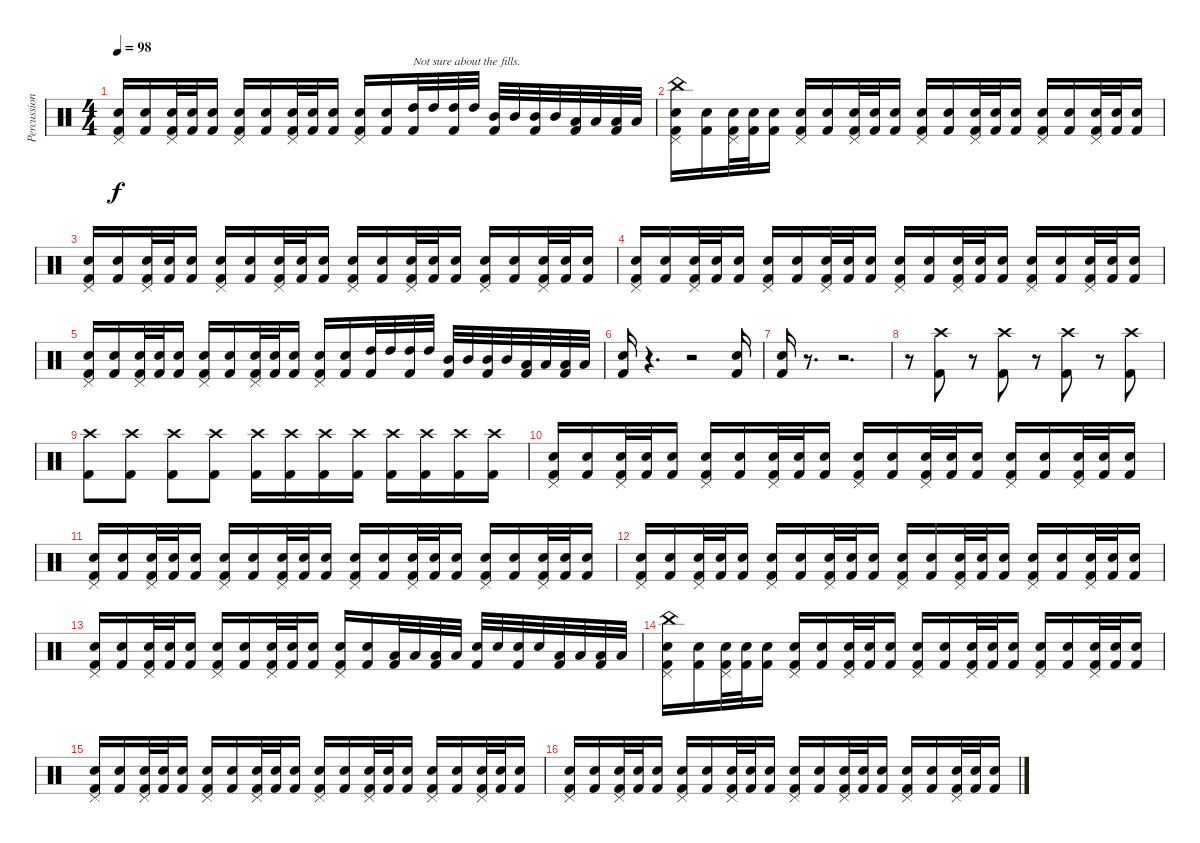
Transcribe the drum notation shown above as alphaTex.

\track ("Percussion" "Percussion") {instrument percussion}
\staff {score}
\articulation defaults
\ts (4 4)
\tempo 98
\clef neutral
\ks c
("Pedal Hi-Hat (hit)" "Snare (hit) 2" "Kick (hit) 2").16{dy f} ("Snare (hit) 2" "Kick (hit) 2").16 ("Pedal Hi-Hat (hit)" "Snare (hit) 2" "Kick (hit) 2").32 ("Snare (hit) 2" "Kick (hit) 2").32 ("Snare (hit) 2" "Kick (hit) 2").16 ("Pedal Hi-Hat (hit)" "Snare (hit) 2" "Kick (hit) 2").16 ("Snare (hit) 2" "Kick (hit) 2").16 ("Pedal Hi-Hat (hit)" "Snare (hit) 2" "Kick (hit) 2").32 ("Snare (hit) 2" "Kick (hit) 2").32 ("Snare (hit) 2" "Kick (hit) 2").16 ("Pedal Hi-Hat (hit)" "Snare (hit) 2" "Kick (hit) 2").16 ("Snare (hit) 2" "Kick (hit) 2").16 ("High Tom (hit)" "Kick (hit) 2").32{txt "Not sure about the fills."} "High Tom (hit)".32 ("High Tom (hit)" "Kick (hit) 2").32 "High Tom (hit)".32 ("Mid Tom (hit)" "Kick (hit) 2").32 "Mid Tom (hit)".32 ("Mid Tom (hit)" "Kick (hit) 2").32 "Mid Tom (hit)".32 ("Low Tom (hit)" "Kick (hit) 2").32 "Low Tom (hit)".32 ("Low Tom (hit)" "Kick (hit) 2").32 "Low Tom (hit)".32 |
("China (hit)" "Pedal Hi-Hat (hit)" "Snare (hit) 2" "Kick (hit) 2").16 ("Snare (hit) 2" "Kick (hit) 2").16 ("Pedal Hi-Hat (hit)" "Snare (hit) 2" "Kick (hit) 2").32 ("Snare (hit) 2" "Kick (hit) 2").32 ("Snare (hit) 2" "Kick (hit) 2").16 ("Pedal Hi-Hat (hit)" "Snare (hit) 2" "Kick (hit) 2").16 ("Snare (hit) 2" "Kick (hit) 2").16 ("Pedal Hi-Hat (hit)" "Snare (hit) 2" "Kick (hit) 2").32 ("Snare (hit) 2" "Kick (hit) 2").32 ("Snare (hit) 2" "Kick (hit) 2").16 ("Pedal Hi-Hat (hit)" "Snare (hit) 2" "Kick (hit) 2").16 ("Snare (hit) 2" "Kick (hit) 2").16 ("Pedal Hi-Hat (hit)" "Snare (hit) 2" "Kick (hit) 2").32 ("Snare (hit) 2" "Kick (hit) 2").32 ("Snare (hit) 2" "Kick (hit) 2").16 ("Pedal Hi-Hat (hit)" "Snare (hit) 2" "Kick (hit) 2").16 ("Snare (hit) 2" "Kick (hit) 2").16 ("Pedal Hi-Hat (hit)" "Snare (hit) 2" "Kick (hit) 2").32 ("Snare (hit) 2" "Kick (hit) 2").32 ("Snare (hit) 2" "Kick (hit) 2").16 |
("Pedal Hi-Hat (hit)" "Snare (hit) 2" "Kick (hit) 2").16 ("Snare (hit) 2" "Kick (hit) 2").16 ("Pedal Hi-Hat (hit)" "Snare (hit) 2" "Kick (hit) 2").32 ("Snare (hit) 2" "Kick (hit) 2").32 ("Snare (hit) 2" "Kick (hit) 2").16 ("Pedal Hi-Hat (hit)" "Snare (hit) 2" "Kick (hit) 2").16 ("Snare (hit) 2" "Kick (hit) 2").16 ("Pedal Hi-Hat (hit)" "Snare (hit) 2" "Kick (hit) 2").32 ("Snare (hit) 2" "Kick (hit) 2").32 ("Snare (hit) 2" "Kick (hit) 2").16 ("Pedal Hi-Hat (hit)" "Snare (hit) 2" "Kick (hit) 2").16 ("Snare (hit) 2" "Kick (hit) 2").16 ("Pedal Hi-Hat (hit)" "Snare (hit) 2" "Kick (hit) 2").32 ("Snare (hit) 2" "Kick (hit) 2").32 ("Snare (hit) 2" "Kick (hit) 2").16 ("Pedal Hi-Hat (hit)" "Snare (hit) 2" "Kick (hit) 2").16 ("Snare (hit) 2" "Kick (hit) 2").16 ("Pedal Hi-Hat (hit)" "Snare (hit) 2" "Kick (hit) 2").32 ("Snare (hit) 2" "Kick (hit) 2").32 ("Snare (hit) 2" "Kick (hit) 2").16 |
("Pedal Hi-Hat (hit)" "Snare (hit) 2" "Kick (hit) 2").16 ("Snare (hit) 2" "Kick (hit) 2").16 ("Pedal Hi-Hat (hit)" "Snare (hit) 2" "Kick (hit) 2").32 ("Snare (hit) 2" "Kick (hit) 2").32 ("Snare (hit) 2" "Kick (hit) 2").16 ("Pedal Hi-Hat (hit)" "Snare (hit) 2" "Kick (hit) 2").16 ("Snare (hit) 2" "Kick (hit) 2").16 ("Pedal Hi-Hat (hit)" "Snare (hit) 2" "Kick (hit) 2").32 ("Snare (hit) 2" "Kick (hit) 2").32 ("Snare (hit) 2" "Kick (hit) 2").16 ("Pedal Hi-Hat (hit)" "Snare (hit) 2" "Kick (hit) 2").16 ("Snare (hit) 2" "Kick (hit) 2").16 ("Pedal Hi-Hat (hit)" "Snare (hit) 2" "Kick (hit) 2").32 ("Snare (hit) 2" "Kick (hit) 2").32 ("Snare (hit) 2" "Kick (hit) 2").16 ("Pedal Hi-Hat (hit)" "Snare (hit) 2" "Kick (hit) 2").16 ("Snare (hit) 2" "Kick (hit) 2").16 ("Pedal Hi-Hat (hit)" "Snare (hit) 2" "Kick (hit) 2").32 ("Snare (hit) 2" "Kick (hit) 2").32 ("Snare (hit) 2" "Kick (hit) 2").16 |
("Pedal Hi-Hat (hit)" "Snare (hit) 2" "Kick (hit) 2").16 ("Snare (hit) 2" "Kick (hit) 2").16 ("Pedal Hi-Hat (hit)" "Snare (hit) 2" "Kick (hit) 2").32 ("Snare (hit) 2" "Kick (hit) 2").32 ("Snare (hit) 2" "Kick (hit) 2").16 ("Pedal Hi-Hat (hit)" "Snare (hit) 2" "Kick (hit) 2").16 ("Snare (hit) 2" "Kick (hit) 2").16 ("Pedal Hi-Hat (hit)" "Snare (hit) 2" "Kick (hit) 2").32 ("Snare (hit) 2" "Kick (hit) 2").32 ("Snare (hit) 2" "Kick (hit) 2").16 ("Pedal Hi-Hat (hit)" "Snare (hit) 2" "Kick (hit) 2").16 ("Snare (hit) 2" "Kick (hit) 2").16 ("High Tom (hit)" "Kick (hit) 2").32 "High Tom (hit)".32 ("High Tom (hit)" "Kick (hit) 2").32 "High Tom (hit)".32 ("Mid Tom (hit)" "Kick (hit) 2").32 "Mid Tom (hit)".32 ("Mid Tom (hit)" "Kick (hit) 2").32 "Mid Tom (hit)".32 ("Low Tom (hit)" "Kick (hit) 2").32 "Low Tom (hit)".32 ("Low Tom (hit)" "Kick (hit) 2").32 "Low Tom (hit)".32 |
("Snare (hit) 2" "Kick (hit) 2").16 r.4{d} r.2 ("Snare (hit) 2" "Kick (hit) 2").16 |
("Snare (hit) 2" "Kick (hit) 2").16 r.8{d} r.2{d} |
r.8 ("Crash high (hit)" "Kick (hit) 2").8 r.8 ("Crash high (hit)" "Kick (hit) 2").8 r.8 ("Crash high (hit)" "Kick (hit) 2").8 r.8 ("Crash high (hit)" "Kick (hit) 2").8 |
("Crash high (hit)" "Kick (hit) 2").8 ("Crash high (hit)" "Kick (hit) 2").8 ("Crash high (hit)" "Kick (hit) 2").8 ("Crash high (hit)" "Kick (hit) 2").8 ("Crash high (hit)" "Kick (hit) 2").16 ("Crash high (hit)" "Kick (hit) 2").16 ("Crash high (hit)" "Kick (hit) 2").16 ("Crash high (hit)" "Kick (hit) 2").16 ("Crash high (hit)" "Kick (hit) 2").16 ("Crash high (hit)" "Kick (hit) 2").16 ("Crash high (hit)" "Kick (hit) 2").16 ("Crash high (hit)" "Kick (hit) 2").16 |
("Pedal Hi-Hat (hit)" "Snare (hit) 2" "Kick (hit) 2").16 ("Snare (hit) 2" "Kick (hit) 2").16 ("Pedal Hi-Hat (hit)" "Snare (hit) 2" "Kick (hit) 2").32 ("Snare (hit) 2" "Kick (hit) 2").32 ("Snare (hit) 2" "Kick (hit) 2").16 ("Pedal Hi-Hat (hit)" "Snare (hit) 2" "Kick (hit) 2").16 ("Snare (hit) 2" "Kick (hit) 2").16 ("Pedal Hi-Hat (hit)" "Snare (hit) 2" "Kick (hit) 2").32 ("Snare (hit) 2" "Kick (hit) 2").32 ("Snare (hit) 2" "Kick (hit) 2").16 ("Pedal Hi-Hat (hit)" "Snare (hit) 2" "Kick (hit) 2").16 ("Snare (hit) 2" "Kick (hit) 2").16 ("Pedal Hi-Hat (hit)" "Snare (hit) 2" "Kick (hit) 2").32 ("Snare (hit) 2" "Kick (hit) 2").32 ("Snare (hit) 2" "Kick (hit) 2").16 ("Pedal Hi-Hat (hit)" "Snare (hit) 2" "Kick (hit) 2").16 ("Snare (hit) 2" "Kick (hit) 2").16 ("Pedal Hi-Hat (hit)" "Snare (hit) 2" "Kick (hit) 2").32 ("Snare (hit) 2" "Kick (hit) 2").32 ("Snare (hit) 2" "Kick (hit) 2").16 |
("Pedal Hi-Hat (hit)" "Snare (hit) 2" "Kick (hit) 2").16 ("Snare (hit) 2" "Kick (hit) 2").16 ("Pedal Hi-Hat (hit)" "Snare (hit) 2" "Kick (hit) 2").32 ("Snare (hit) 2" "Kick (hit) 2").32 ("Snare (hit) 2" "Kick (hit) 2").16 ("Pedal Hi-Hat (hit)" "Snare (hit) 2" "Kick (hit) 2").16 ("Snare (hit) 2" "Kick (hit) 2").16 ("Pedal Hi-Hat (hit)" "Snare (hit) 2" "Kick (hit) 2").32 ("Snare (hit) 2" "Kick (hit) 2").32 ("Snare (hit) 2" "Kick (hit) 2").16 ("Pedal Hi-Hat (hit)" "Snare (hit) 2" "Kick (hit) 2").16 ("Snare (hit) 2" "Kick (hit) 2").16 ("Pedal Hi-Hat (hit)" "Snare (hit) 2" "Kick (hit) 2").32 ("Snare (hit) 2" "Kick (hit) 2").32 ("Snare (hit) 2" "Kick (hit) 2").16 ("Pedal Hi-Hat (hit)" "Snare (hit) 2" "Kick (hit) 2").16 ("Snare (hit) 2" "Kick (hit) 2").16 ("Pedal Hi-Hat (hit)" "Snare (hit) 2" "Kick (hit) 2").32 ("Snare (hit) 2" "Kick (hit) 2").32 ("Snare (hit) 2" "Kick (hit) 2").16 |
("Pedal Hi-Hat (hit)" "Snare (hit) 2" "Kick (hit) 2").16 ("Snare (hit) 2" "Kick (hit) 2").16 ("Pedal Hi-Hat (hit)" "Snare (hit) 2" "Kick (hit) 2").32 ("Snare (hit) 2" "Kick (hit) 2").32 ("Snare (hit) 2" "Kick (hit) 2").16 ("Pedal Hi-Hat (hit)" "Snare (hit) 2" "Kick (hit) 2").16 ("Snare (hit) 2" "Kick (hit) 2").16 ("Pedal Hi-Hat (hit)" "Snare (hit) 2" "Kick (hit) 2").32 ("Snare (hit) 2" "Kick (hit) 2").32 ("Snare (hit) 2" "Kick (hit) 2").16 ("Pedal Hi-Hat (hit)" "Snare (hit) 2" "Kick (hit) 2").16 ("Snare (hit) 2" "Kick (hit) 2").16 ("Pedal Hi-Hat (hit)" "Snare (hit) 2" "Kick (hit) 2").32 ("Snare (hit) 2" "Kick (hit) 2").32 ("Snare (hit) 2" "Kick (hit) 2").16 ("Pedal Hi-Hat (hit)" "Snare (hit) 2" "Kick (hit) 2").16 ("Snare (hit) 2" "Kick (hit) 2").16 ("Pedal Hi-Hat (hit)" "Snare (hit) 2" "Kick (hit) 2").32 ("Snare (hit) 2" "Kick (hit) 2").32 ("Snare (hit) 2" "Kick (hit) 2").16 |
("Pedal Hi-Hat (hit)" "Snare (hit) 2" "Kick (hit) 2").16 ("Snare (hit) 2" "Kick (hit) 2").16 ("Pedal Hi-Hat (hit)" "Snare (hit) 2" "Kick (hit) 2").32 ("Snare (hit) 2" "Kick (hit) 2").32 ("Snare (hit) 2" "Kick (hit) 2").16 ("Pedal Hi-Hat (hit)" "Snare (hit) 2" "Kick (hit) 2").16 ("Snare (hit) 2" "Kick (hit) 2").16 ("Pedal Hi-Hat (hit)" "Snare (hit) 2" "Kick (hit) 2").32 ("Snare (hit) 2" "Kick (hit) 2").32 ("Snare (hit) 2" "Kick (hit) 2").16 ("Pedal Hi-Hat (hit)" "Snare (hit) 2" "Kick (hit) 2").16 ("Snare (hit) 2" "Kick (hit) 2").16 ("Low Tom (hit)" "Kick (hit) 2").32 "Low Tom (hit)".32 ("Low Tom (hit)" "Kick (hit) 2").32 "Low Tom (hit)".32 ("Snare (hit) 2" "Kick (hit) 2").32 "Snare (hit) 2".32 ("Snare (hit) 2" "Kick (hit) 2").32 "Snare (hit) 2".32 ("Low Tom (hit)" "Kick (hit) 2").32 "Low Tom (hit)".32 ("Low Tom (hit)" "Kick (hit) 2").32 "Low Tom (hit)".32 |
("China (hit)" "Pedal Hi-Hat (hit)" "Snare (hit) 2" "Kick (hit) 2").16 ("Snare (hit) 2" "Kick (hit) 2").16 ("Pedal Hi-Hat (hit)" "Snare (hit) 2" "Kick (hit) 2").32 ("Snare (hit) 2" "Kick (hit) 2").32 ("Snare (hit) 2" "Kick (hit) 2").16 ("Pedal Hi-Hat (hit)" "Snare (hit) 2" "Kick (hit) 2").16 ("Snare (hit) 2" "Kick (hit) 2").16 ("Pedal Hi-Hat (hit)" "Snare (hit) 2" "Kick (hit) 2").32 ("Snare (hit) 2" "Kick (hit) 2").32 ("Snare (hit) 2" "Kick (hit) 2").16 ("Pedal Hi-Hat (hit)" "Snare (hit) 2" "Kick (hit) 2").16 ("Snare (hit) 2" "Kick (hit) 2").16 ("Pedal Hi-Hat (hit)" "Snare (hit) 2" "Kick (hit) 2").32 ("Snare (hit) 2" "Kick (hit) 2").32 ("Snare (hit) 2" "Kick (hit) 2").16 ("Pedal Hi-Hat (hit)" "Snare (hit) 2" "Kick (hit) 2").16 ("Snare (hit) 2" "Kick (hit) 2").16 ("Pedal Hi-Hat (hit)" "Snare (hit) 2" "Kick (hit) 2").32 ("Snare (hit) 2" "Kick (hit) 2").32 ("Snare (hit) 2" "Kick (hit) 2").16 |
("Pedal Hi-Hat (hit)" "Snare (hit) 2" "Kick (hit) 2").16 ("Snare (hit) 2" "Kick (hit) 2").16 ("Pedal Hi-Hat (hit)" "Snare (hit) 2" "Kick (hit) 2").32 ("Snare (hit) 2" "Kick (hit) 2").32 ("Snare (hit) 2" "Kick (hit) 2").16 ("Pedal Hi-Hat (hit)" "Snare (hit) 2" "Kick (hit) 2").16 ("Snare (hit) 2" "Kick (hit) 2").16 ("Pedal Hi-Hat (hit)" "Snare (hit) 2" "Kick (hit) 2").32 ("Snare (hit) 2" "Kick (hit) 2").32 ("Snare (hit) 2" "Kick (hit) 2").16 ("Pedal Hi-Hat (hit)" "Snare (hit) 2" "Kick (hit) 2").16 ("Snare (hit) 2" "Kick (hit) 2").16 ("Pedal Hi-Hat (hit)" "Snare (hit) 2" "Kick (hit) 2").32 ("Snare (hit) 2" "Kick (hit) 2").32 ("Snare (hit) 2" "Kick (hit) 2").16 ("Pedal Hi-Hat (hit)" "Snare (hit) 2" "Kick (hit) 2").16 ("Snare (hit) 2" "Kick (hit) 2").16 ("Pedal Hi-Hat (hit)" "Snare (hit) 2" "Kick (hit) 2").32 ("Snare (hit) 2" "Kick (hit) 2").32 ("Snare (hit) 2" "Kick (hit) 2").16 |
("Pedal Hi-Hat (hit)" "Snare (hit) 2" "Kick (hit) 2").16 ("Snare (hit) 2" "Kick (hit) 2").16 ("Pedal Hi-Hat (hit)" "Snare (hit) 2" "Kick (hit) 2").32 ("Snare (hit) 2" "Kick (hit) 2").32 ("Snare (hit) 2" "Kick (hit) 2").16 ("Pedal Hi-Hat (hit)" "Snare (hit) 2" "Kick (hit) 2").16 ("Snare (hit) 2" "Kick (hit) 2").16 ("Pedal Hi-Hat (hit)" "Snare (hit) 2" "Kick (hit) 2").32 ("Snare (hit) 2" "Kick (hit) 2").32 ("Snare (hit) 2" "Kick (hit) 2").16 ("Pedal Hi-Hat (hit)" "Snare (hit) 2" "Kick (hit) 2").16 ("Snare (hit) 2" "Kick (hit) 2").16 ("Pedal Hi-Hat (hit)" "Snare (hit) 2" "Kick (hit) 2").32 ("Snare (hit) 2" "Kick (hit) 2").32 ("Snare (hit) 2" "Kick (hit) 2").16 ("Pedal Hi-Hat (hit)" "Snare (hit) 2" "Kick (hit) 2").16 ("Snare (hit) 2" "Kick (hit) 2").16 ("Pedal Hi-Hat (hit)" "Snare (hit) 2" "Kick (hit) 2").32 ("Snare (hit) 2" "Kick (hit) 2").32 ("Snare (hit) 2" "Kick (hit) 2").16
